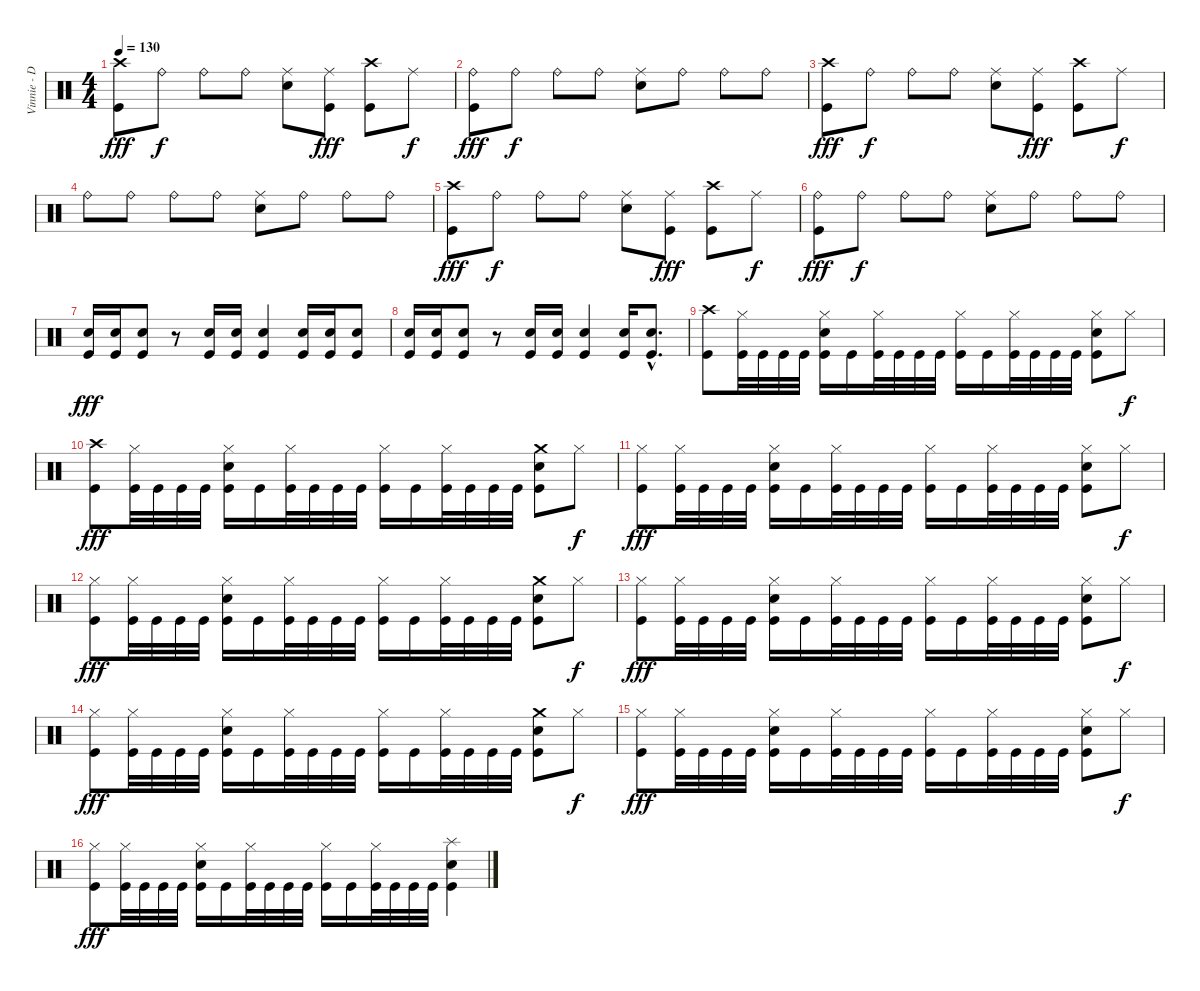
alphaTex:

\track ("Vinnie - Drums" "Vinnie - D") {instrument percussion}
\staff {score}
\articulation defaults
\ts (4 4)
\tempo 130
\clef neutral
\ks c
("Crash high (hit)" "Kick (hit)").8{dy fff} "Ride (bell)".8{dy f} "Ride (bell)".8 "Ride (bell)".8 ("Ride (middle)" "Electric Snare (hit)").8 ("Ride (middle)" "Kick (hit)").8{dy fff} ("Crash high (hit)" "Kick (hit)").8 "Ride (middle)".8{dy f} |
("Ride (bell)" "Kick (hit)").8{dy fff} "Ride (bell)".8{dy f} "Ride (bell)".8 "Ride (bell)".8 ("Ride (middle)" "Electric Snare (hit)").8 "Ride (bell)".8 "Ride (bell)".8 "Ride (bell)".8 |
("Crash high (hit)" "Kick (hit)").8{dy fff} "Ride (bell)".8{dy f} "Ride (bell)".8 "Ride (bell)".8 ("Ride (middle)" "Electric Snare (hit)").8 ("Ride (middle)" "Kick (hit)").8{dy fff} ("Crash high (hit)" "Kick (hit)").8 "Ride (middle)".8{dy f} |
"Ride (bell)".8 "Ride (bell)".8 "Ride (bell)".8 "Ride (bell)".8 ("Ride (middle)" "Electric Snare (hit)").8 "Ride (bell)".8 "Ride (bell)".8 "Ride (bell)".8 |
("Crash high (hit)" "Kick (hit)").8{dy fff} "Ride (bell)".8{dy f} "Ride (bell)".8 "Ride (bell)".8 ("Ride (middle)" "Electric Snare (hit)").8 ("Ride (middle)" "Kick (hit)").8{dy fff} ("Crash high (hit)" "Kick (hit)").8 "Ride (middle)".8{dy f} |
("Ride (bell)" "Kick (hit)").8{dy fff} "Ride (bell)".8{dy f} "Ride (bell)".8 "Ride (bell)".8 ("Ride (middle)" "Electric Snare (hit)").8 "Ride (bell)".8 "Ride (bell)".8 "Ride (bell)".8 |
("Electric Snare (hit)" "Kick (hit)").16{dy fff} ("Electric Snare (hit)" "Kick (hit)").16 ("Electric Snare (hit)" "Kick (hit)").8 r.8 ("Electric Snare (hit)" "Kick (hit)").16 ("Electric Snare (hit)" "Kick (hit)").16 ("Electric Snare (hit)" "Kick (hit)").4 ("Electric Snare (hit)" "Kick (hit)").16 ("Electric Snare (hit)" "Kick (hit)").16 ("Electric Snare (hit)" "Kick (hit)").8 |
("Electric Snare (hit)" "Kick (hit)").16 ("Electric Snare (hit)" "Kick (hit)").16 ("Electric Snare (hit)" "Kick (hit)").8 r.8 ("Electric Snare (hit)" "Kick (hit)").16 ("Electric Snare (hit)" "Kick (hit)").16 ("Electric Snare (hit)" "Kick (hit)").4 ("Electric Snare (hit)" "Kick (hit)").16 ("Electric Snare (hit)"{hac} "Kick (hit)"{hac}).8{d} |
("Crash high (hit)" "Kick (hit)").8 ("Hi-Hat (closed)" "Kick (hit)").32 "Kick (hit)".32 "Kick (hit)".32 "Kick (hit)".32 ("Hi-Hat (closed)" "Electric Snare (hit)" "Kick (hit)").16 "Kick (hit)".16 ("Hi-Hat (closed)" "Kick (hit)").32 "Kick (hit)".32 "Kick (hit)".32 "Kick (hit)".32 ("Hi-Hat (closed)" "Kick (hit)").16 "Kick (hit)".16 ("Hi-Hat (closed)" "Kick (hit)").32 "Kick (hit)".32 "Kick (hit)".32 "Kick (hit)".32 ("Hi-Hat (closed)" "Electric Snare (hit)" "Kick (hit)").8 "Hi-Hat (closed)".8{dy f} |
("Crash high (hit)" "Kick (hit)").8{dy fff} ("Hi-Hat (closed)" "Kick (hit)").32 "Kick (hit)".32 "Kick (hit)".32 "Kick (hit)".32 ("Hi-Hat (closed)" "Electric Snare (hit)" "Kick (hit)").16 "Kick (hit)".16 ("Hi-Hat (closed)" "Kick (hit)").32 "Kick (hit)".32 "Kick (hit)".32 "Kick (hit)".32 ("Hi-Hat (closed)" "Kick (hit)").16 "Kick (hit)".16 ("Hi-Hat (closed)" "Kick (hit)").32 "Kick (hit)".32 "Kick (hit)".32 "Kick (hit)".32 ("Crash medium (hit)" "Electric Snare (hit)" "Kick (hit)").8 "Hi-Hat (closed)".8{dy f} |
("Hi-Hat (closed)" "Kick (hit)").8{dy fff} ("Hi-Hat (closed)" "Kick (hit)").32 "Kick (hit)".32 "Kick (hit)".32 "Kick (hit)".32 ("Hi-Hat (closed)" "Electric Snare (hit)" "Kick (hit)").16 "Kick (hit)".16 ("Hi-Hat (closed)" "Kick (hit)").32 "Kick (hit)".32 "Kick (hit)".32 "Kick (hit)".32 ("Hi-Hat (closed)" "Kick (hit)").16 "Kick (hit)".16 ("Hi-Hat (closed)" "Kick (hit)").32 "Kick (hit)".32 "Kick (hit)".32 "Kick (hit)".32 ("Hi-Hat (closed)" "Electric Snare (hit)" "Kick (hit)").8 "Hi-Hat (closed)".8{dy f} |
("Hi-Hat (closed)" "Kick (hit)").8{dy fff} ("Hi-Hat (closed)" "Kick (hit)").32 "Kick (hit)".32 "Kick (hit)".32 "Kick (hit)".32 ("Hi-Hat (closed)" "Electric Snare (hit)" "Kick (hit)").16 "Kick (hit)".16 ("Hi-Hat (closed)" "Kick (hit)").32 "Kick (hit)".32 "Kick (hit)".32 "Kick (hit)".32 ("Hi-Hat (closed)" "Kick (hit)").16 "Kick (hit)".16 ("Hi-Hat (closed)" "Kick (hit)").32 "Kick (hit)".32 "Kick (hit)".32 "Kick (hit)".32 ("Crash medium (hit)" "Electric Snare (hit)" "Kick (hit)").8 "Hi-Hat (closed)".8{dy f} |
("Hi-Hat (closed)" "Kick (hit)").8{dy fff} ("Hi-Hat (closed)" "Kick (hit)").32 "Kick (hit)".32 "Kick (hit)".32 "Kick (hit)".32 ("Hi-Hat (closed)" "Electric Snare (hit)" "Kick (hit)").16 "Kick (hit)".16 ("Hi-Hat (closed)" "Kick (hit)").32 "Kick (hit)".32 "Kick (hit)".32 "Kick (hit)".32 ("Hi-Hat (closed)" "Kick (hit)").16 "Kick (hit)".16 ("Hi-Hat (closed)" "Kick (hit)").32 "Kick (hit)".32 "Kick (hit)".32 "Kick (hit)".32 ("Hi-Hat (closed)" "Electric Snare (hit)" "Kick (hit)").8 "Hi-Hat (closed)".8{dy f} |
("Hi-Hat (closed)" "Kick (hit)").8{dy fff} ("Hi-Hat (closed)" "Kick (hit)").32 "Kick (hit)".32 "Kick (hit)".32 "Kick (hit)".32 ("Hi-Hat (closed)" "Electric Snare (hit)" "Kick (hit)").16 "Kick (hit)".16 ("Hi-Hat (closed)" "Kick (hit)").32 "Kick (hit)".32 "Kick (hit)".32 "Kick (hit)".32 ("Hi-Hat (closed)" "Kick (hit)").16 "Kick (hit)".16 ("Hi-Hat (closed)" "Kick (hit)").32 "Kick (hit)".32 "Kick (hit)".32 "Kick (hit)".32 ("Crash medium (hit)" "Electric Snare (hit)" "Kick (hit)").8 "Hi-Hat (closed)".8{dy f} |
("Hi-Hat (closed)" "Kick (hit)").8{dy fff} ("Hi-Hat (closed)" "Kick (hit)").32 "Kick (hit)".32 "Kick (hit)".32 "Kick (hit)".32 ("Hi-Hat (closed)" "Electric Snare (hit)" "Kick (hit)").16 "Kick (hit)".16 ("Hi-Hat (closed)" "Kick (hit)").32 "Kick (hit)".32 "Kick (hit)".32 "Kick (hit)".32 ("Hi-Hat (closed)" "Kick (hit)").16 "Kick (hit)".16 ("Hi-Hat (closed)" "Kick (hit)").32 "Kick (hit)".32 "Kick (hit)".32 "Kick (hit)".32 ("Hi-Hat (closed)" "Electric Snare (hit)" "Kick (hit)").8 "Hi-Hat (closed)".8{dy f} |
("Hi-Hat (closed)" "Kick (hit)").8{dy fff} ("Hi-Hat (closed)" "Kick (hit)").32 "Kick (hit)".32 "Kick (hit)".32 "Kick (hit)".32 ("Hi-Hat (closed)" "Electric Snare (hit)" "Kick (hit)").16 "Kick (hit)".16 ("Hi-Hat (closed)" "Kick (hit)").32 "Kick (hit)".32 "Kick (hit)".32 "Kick (hit)".32 ("Hi-Hat (closed)" "Kick (hit)").16 "Kick (hit)".16 ("Hi-Hat (closed)" "Kick (hit)").32 "Kick (hit)".32 "Kick (hit)".32 "Kick (hit)".32 ("Splash (hit)" "Electric Snare (hit)" "Kick (hit)").4
